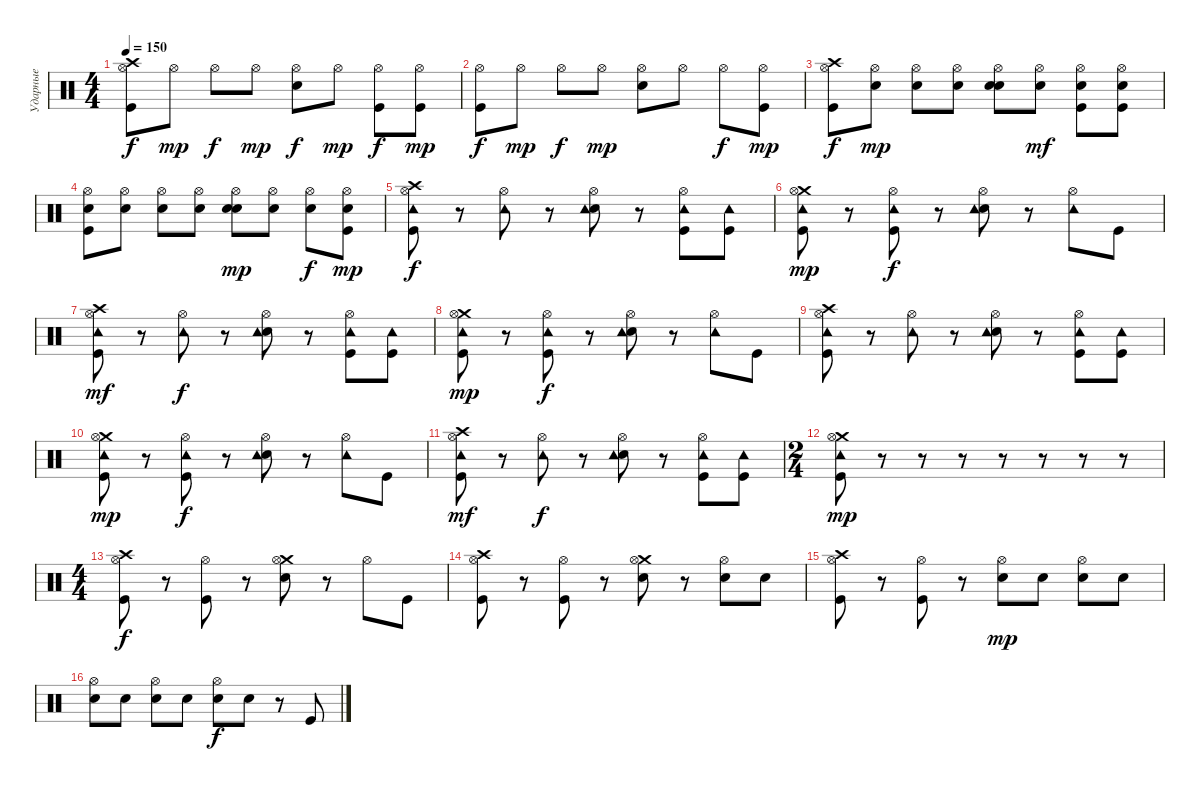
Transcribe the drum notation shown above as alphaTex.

\track ("Ударные" "Ударные") {instrument percussion}
\staff {score}
\articulation defaults
\ts (4 4)
\tempo 150
\clef neutral
\ks c
("Crash high (hit)" "Hi-Hat (open)" "Kick (hit)").8{dy f} "Hi-Hat (open)".8{dy mp} "Hi-Hat (open)".8{dy f} "Hi-Hat (open)".8{dy mp} ("Snare (hit) 2" "Hi-Hat (open)").8{dy f} "Hi-Hat (open)".8{dy mp} ("Hi-Hat (open)" "Kick (hit)").8{dy f} ("Hi-Hat (open)" "Kick (hit)").8{dy mp} |
("Hi-Hat (open)" "Kick (hit)").8{dy f} "Hi-Hat (open)".8{dy mp} "Hi-Hat (open)".8{dy f} "Hi-Hat (open)".8{dy mp} ("Snare (hit) 2" "Hi-Hat (open)").8 "Hi-Hat (open)".8 "Hi-Hat (open)".8{dy f} ("Hi-Hat (open)" "Kick (hit)").8{dy mp} |
("Crash high (hit)" "Hi-Hat (open)" "Kick (hit)").8{dy f} ("Hi-Hat (open)" "Snare (hit) 2").8{dy mp} ("Hi-Hat (open)" "Snare (hit) 2").8 ("Hi-Hat (open)" "Snare (hit) 2").8 ("Snare (hit) 2" "Hi-Hat (open)" "Snare (hit) 2").8 ("Hi-Hat (open)" "Snare (hit) 2").8{dy mf} ("Hi-Hat (open)" "Kick (hit)" "Snare (hit) 2").8 ("Hi-Hat (open)" "Kick (hit)" "Snare (hit) 2").8 |
("Hi-Hat (open)" "Kick (hit)" "Snare (hit) 2").8 ("Hi-Hat (open)" "Snare (hit) 2").8 ("Hi-Hat (open)" "Snare (hit)").8 ("Hi-Hat (open)" "Snare (hit) 2").8 ("Snare (hit) 2" "Hi-Hat (open)" "Snare (hit) 2").8{dy mp} ("Hi-Hat (open)" "Snare (hit) 2").8 ("Hi-Hat (open)" "Snare (hit) 2").8{dy f} ("Hi-Hat (open)" "Kick (hit)" "Snare (hit) 2").8{dy mp} |
("Crash high (hit)" "Kick (hit)" "Hi-Hat (open)" "Tambourine (hit)").8{dy f} r.8 ("Hi-Hat (open)" "Tambourine (hit)").8 r.8 ("Electric Snare (hit)" "Hi-Hat (open)" "Tambourine (hit)").8 r.8 ("Kick (hit)" "Hi-Hat (open)" "Tambourine (hit)").8 ("Kick (hit)" "Tambourine (hit)").8 |
("Crash medium (hit)" "Kick (hit)" "Hi-Hat (open)" "Tambourine (hit)").8{dy mp} r.8 ("Kick (hit)" "Hi-Hat (open)" "Tambourine (hit)").8{dy f} r.8 ("Electric Snare (hit)" "Hi-Hat (open)" "Tambourine (hit)").8 r.8 ("Hi-Hat (open)" "Tambourine (hit)").8 "Kick (hit)".8 |
("Crash high (hit)" "Kick (hit)" "Hi-Hat (open)" "Tambourine (hit)").8{dy mf} r.8 ("Hi-Hat (open)" "Tambourine (hit)").8{dy f} r.8 ("Electric Snare (hit)" "Hi-Hat (open)" "Tambourine (hit)").8 r.8 ("Kick (hit)" "Hi-Hat (open)" "Tambourine (hit)").8 ("Kick (hit)" "Tambourine (hit)").8 |
("Crash medium (hit)" "Kick (hit)" "Hi-Hat (open)" "Tambourine (hit)").8{dy mp} r.8 ("Kick (hit)" "Hi-Hat (open)" "Tambourine (hit)").8{dy f} r.8 ("Electric Snare (hit)" "Hi-Hat (open)" "Tambourine (hit)").8 r.8 ("Hi-Hat (open)" "Tambourine (hit)").8 "Kick (hit)".8 |
("Crash high (hit)" "Kick (hit)" "Hi-Hat (open)" "Tambourine (hit)").8 r.8 ("Hi-Hat (open)" "Tambourine (hit)").8 r.8 ("Electric Snare (hit)" "Hi-Hat (open)" "Tambourine (hit)").8 r.8 ("Kick (hit)" "Hi-Hat (open)" "Tambourine (hit)").8 ("Kick (hit)" "Tambourine (hit)").8 |
("Crash medium (hit)" "Kick (hit)" "Hi-Hat (open)" "Tambourine (hit)").8{dy mp} r.8 ("Kick (hit)" "Hi-Hat (open)" "Tambourine (hit)").8{dy f} r.8 ("Electric Snare (hit)" "Hi-Hat (open)" "Tambourine (hit)").8 r.8 ("Hi-Hat (open)" "Tambourine (hit)").8 "Kick (hit)".8 |
("Crash high (hit)" "Kick (hit)" "Hi-Hat (open)" "Tambourine (hit)").8{dy mf} r.8 ("Hi-Hat (open)" "Tambourine (hit)").8{dy f} r.8 ("Electric Snare (hit)" "Hi-Hat (open)" "Tambourine (hit)").8 r.8 ("Kick (hit)" "Hi-Hat (open)" "Tambourine (hit)").8 ("Kick (hit)" "Tambourine (hit)").8 |
\ts (2 4)
("Crash medium (hit)" "Kick (hit)" "Hi-Hat (open)" "Tambourine (hit)").8{dy mp} r.8 r.8 r.8 r.8 r.8 r.8 r.8 |
\ts (4 4)
("Crash high (hit)" "Hi-Hat (open)" "Kick (hit)").8{dy f} r.8 ("Kick (hit)" "Hi-Hat (open)").8 r.8 ("Crash medium (hit)" "Electric Snare (hit)" "Hi-Hat (open)").8 r.8 "Hi-Hat (open)".8 "Kick (hit)".8 |
("Crash high (hit)" "Hi-Hat (open)" "Kick (hit)").8 r.8 ("Kick (hit)" "Hi-Hat (open)").8 r.8 ("Crash medium (hit)" "Electric Snare (hit)" "Hi-Hat (open)").8 r.8 ("Electric Snare (hit)" "Hi-Hat (open)").8 "Electric Snare (hit)".8 |
("Crash high (hit)" "Hi-Hat (open)" "Kick (hit)").8 r.8 ("Kick (hit)" "Hi-Hat (open)").8 r.8 ("Electric Snare (hit)" "Hi-Hat (open)").8{dy mp} "Electric Snare (hit)".8 ("Electric Snare (hit)" "Hi-Hat (open)").8 "Electric Snare (hit)".8 |
("Electric Snare (hit)" "Hi-Hat (open)").8 "Electric Snare (hit)".8 ("Electric Snare (hit)" "Hi-Hat (open)").8 "Electric Snare (hit)".8 ("Electric Snare (hit)" "Hi-Hat (open)").8{dy f} "Electric Snare (hit)".8 r.8 "Kick (hit)".8
